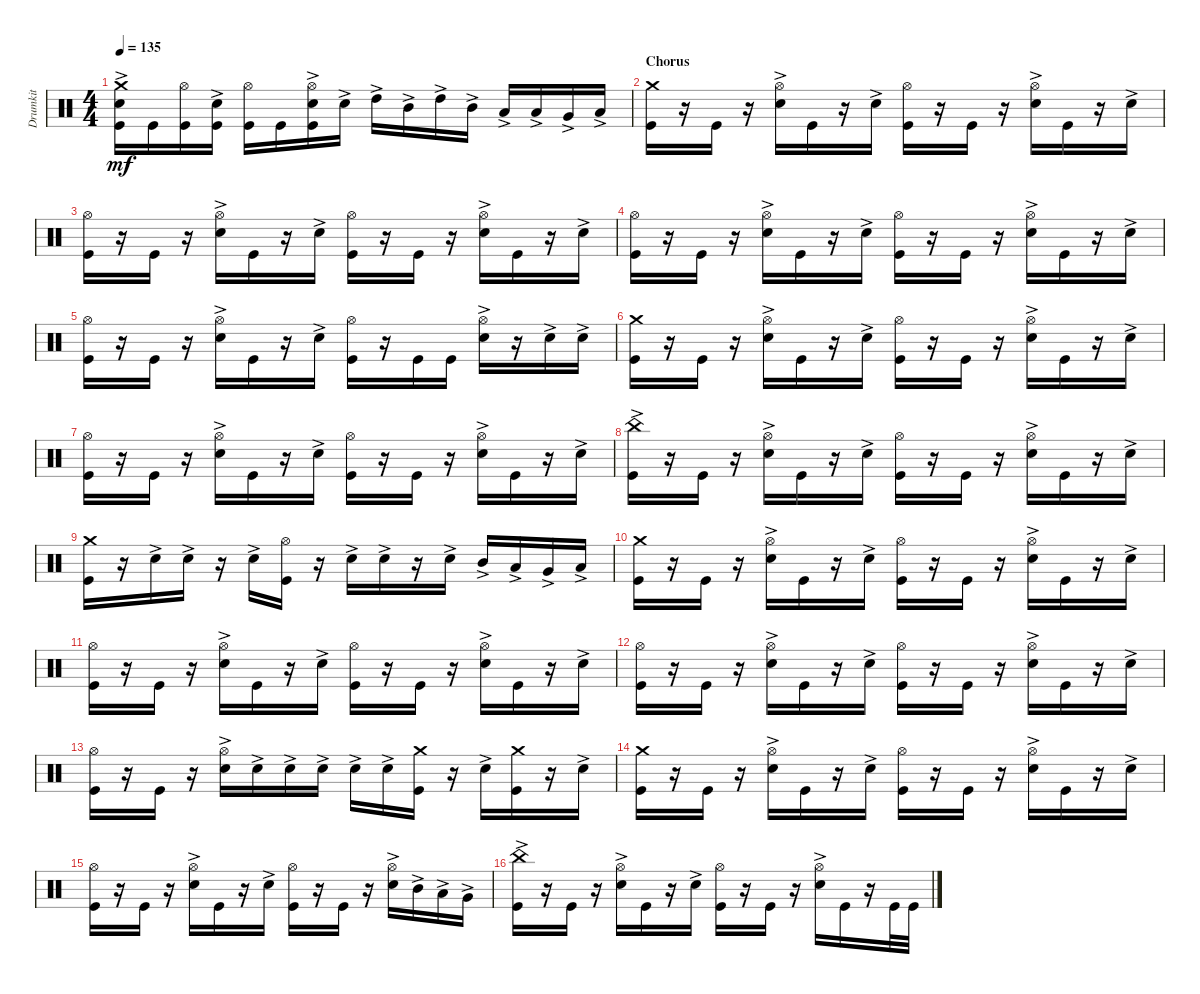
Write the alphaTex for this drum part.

\track ("Drumkit" "Drumkit") {instrument percussion}
\staff {score}
\articulation defaults
\ts (4 4)
\tempo 135
\clef neutral
\ks c
("Kick (hit)" "Snare (hit) 2"{ac} "Crash medium (hit)").16{dy mf} "Kick (hit)".16 ("Kick (hit)" "Hi-Hat (open)").16 ("Kick (hit)" "Snare (hit) 2"{ac}).16 ("Kick (hit)" "Hi-Hat (open)").16 "Kick (hit)".16 ("Kick (hit)" "Snare (hit) 2"{ac} "Hi-Hat (open)").16 "Snare (hit) 2"{ac}.16 "High Tom (hit)"{ac}.16 "Mid Tom (hit)"{ac}.16 "High Tom (hit)"{ac}.16 "Mid Tom (hit)"{ac}.16 "Low Tom (hit)"{ac}.16 "Low Tom (hit)"{ac}.16 "Very Low Tom (hit)"{ac}.16 "Low Floor Tom (hit)"{ac}.16 |
\section ("" "Chorus")
("Kick (hit)" "Crash medium (hit)").16 r.16 "Kick (hit)".16 r.16 ("Snare (hit) 2"{ac} "Hi-Hat (open)").16 "Kick (hit)".16 r.16 "Snare (hit) 2"{ac}.16 ("Kick (hit)" "Hi-Hat (open)").16 r.16 "Kick (hit)".16 r.16 ("Snare (hit) 2"{ac} "Hi-Hat (open)").16 "Kick (hit)".16 r.16 "Snare (hit) 2"{ac}.16 |
("Kick (hit)" "Hi-Hat (open)").16 r.16 "Kick (hit)".16 r.16 ("Snare (hit) 2"{ac} "Hi-Hat (open)").16 "Kick (hit)".16 r.16 "Snare (hit) 2"{ac}.16 ("Kick (hit)" "Hi-Hat (open)").16 r.16 "Kick (hit)".16 r.16 ("Snare (hit) 2"{ac} "Hi-Hat (open)").16 "Kick (hit)".16 r.16 "Snare (hit) 2"{ac}.16 |
("Kick (hit)" "Hi-Hat (open)").16 r.16 "Kick (hit)".16 r.16 ("Snare (hit) 2"{ac} "Hi-Hat (open)").16 "Kick (hit)".16 r.16 "Snare (hit) 2"{ac}.16 ("Kick (hit)" "Hi-Hat (open)").16 r.16 "Kick (hit)".16 r.16 ("Snare (hit) 2"{ac} "Hi-Hat (open)").16 "Kick (hit)".16 r.16 "Snare (hit) 2"{ac}.16 |
("Kick (hit)" "Hi-Hat (open)").16 r.16 "Kick (hit)".16 r.16 ("Snare (hit) 2"{ac} "Hi-Hat (open)").16 "Kick (hit)".16 r.16 "Snare (hit) 2"{ac}.16 ("Kick (hit)" "Hi-Hat (open)").16 r.16 "Kick (hit)".16 "Kick (hit)".16 ("Snare (hit) 2"{ac} "Hi-Hat (open)").16 r.16 "Snare (hit) 2"{ac}.16 "Snare (hit) 2"{ac}.16 |
("Kick (hit)" "Crash medium (hit)").16 r.16 "Kick (hit)".16 r.16 ("Snare (hit) 2"{ac} "Hi-Hat (open)").16 "Kick (hit)".16 r.16 "Snare (hit) 2"{ac}.16 ("Kick (hit)" "Hi-Hat (open)").16 r.16 "Kick (hit)".16 r.16 ("Snare (hit) 2"{ac} "Hi-Hat (open)").16 "Kick (hit)".16 r.16 "Snare (hit) 2"{ac}.16 |
("Kick (hit)" "Hi-Hat (open)").16 r.16 "Kick (hit)".16 r.16 ("Snare (hit) 2"{ac} "Hi-Hat (open)").16 "Kick (hit)".16 r.16 "Snare (hit) 2"{ac}.16 ("Kick (hit)" "Hi-Hat (open)").16 r.16 "Kick (hit)".16 r.16 ("Snare (hit) 2"{ac} "Hi-Hat (open)").16 "Kick (hit)".16 r.16 "Snare (hit) 2"{ac}.16 |
("Kick (hit)" "China (hit)"{ac}).16 r.16 "Kick (hit)".16 r.16 ("Snare (hit) 2"{ac} "Hi-Hat (open)").16 "Kick (hit)".16 r.16 "Snare (hit) 2"{ac}.16 ("Kick (hit)" "Hi-Hat (open)").16 r.16 "Kick (hit)".16 r.16 ("Snare (hit) 2"{ac} "Hi-Hat (open)").16 "Kick (hit)".16 r.16 "Snare (hit) 2"{ac}.16 |
("Kick (hit)" "Crash medium (hit)").16 r.16 "Snare (hit) 2"{ac}.16 "Snare (hit) 2"{ac}.16 r.16 "Snare (hit) 2"{ac}.16 ("Kick (hit)" "Hi-Hat (open)").16 r.16 "Snare (hit) 2"{ac}.16 "Snare (hit) 2"{ac}.16 r.16 "Snare (hit) 2"{ac}.16 "Mid Tom (hit)"{ac}.16 "Low Tom (hit)"{ac}.16 "Very Low Tom (hit)"{ac}.16 "Low Floor Tom (hit)"{ac}.16 |
("Kick (hit)" "Crash medium (hit)").16 r.16 "Kick (hit)".16 r.16 ("Snare (hit) 2"{ac} "Hi-Hat (open)").16 "Kick (hit)".16 r.16 "Snare (hit) 2"{ac}.16 ("Kick (hit)" "Hi-Hat (open)").16 r.16 "Kick (hit)".16 r.16 ("Snare (hit) 2"{ac} "Hi-Hat (open)").16 "Kick (hit)".16 r.16 "Snare (hit) 2"{ac}.16 |
("Kick (hit)" "Hi-Hat (open)").16 r.16 "Kick (hit)".16 r.16 ("Snare (hit) 2"{ac} "Hi-Hat (open)").16 "Kick (hit)".16 r.16 "Snare (hit) 2"{ac}.16 ("Kick (hit)" "Hi-Hat (open)").16 r.16 "Kick (hit)".16 r.16 ("Snare (hit) 2"{ac} "Hi-Hat (open)").16 "Kick (hit)".16 r.16 "Snare (hit) 2"{ac}.16 |
("Kick (hit)" "Hi-Hat (open)").16 r.16 "Kick (hit)".16 r.16 ("Snare (hit) 2"{ac} "Hi-Hat (open)").16 "Kick (hit)".16 r.16 "Snare (hit) 2"{ac}.16 ("Kick (hit)" "Hi-Hat (open)").16 r.16 "Kick (hit)".16 r.16 ("Snare (hit) 2"{ac} "Hi-Hat (open)").16 "Kick (hit)".16 r.16 "Snare (hit) 2"{ac}.16 |
("Kick (hit)" "Hi-Hat (open)").16 r.16 "Kick (hit)".16 r.16 ("Snare (hit) 2"{ac} "Hi-Hat (open)"{ac}).16 "Snare (hit) 2"{ac}.16 "Snare (hit) 2"{ac}.16 "Snare (hit) 2"{ac}.16 "Snare (hit) 2"{ac}.16 "Snare (hit) 2"{ac}.16 ("Kick (hit)" "Crash medium (hit)").16 r.16 "Snare (hit) 2"{ac}.16 ("Kick (hit)" "Crash medium (hit)").16 r.16 "Snare (hit) 2"{ac}.16 |
("Kick (hit)" "Crash medium (hit)").16 r.16 "Kick (hit)".16 r.16 ("Snare (hit) 2"{ac} "Hi-Hat (open)").16 "Kick (hit)".16 r.16 "Snare (hit) 2"{ac}.16 ("Kick (hit)" "Hi-Hat (open)").16 r.16 "Kick (hit)".16 r.16 ("Snare (hit) 2"{ac} "Hi-Hat (open)").16 "Kick (hit)".16 r.16 "Snare (hit) 2"{ac}.16 |
("Kick (hit)" "Hi-Hat (open)").16 r.16 "Kick (hit)".16 r.16 ("Snare (hit) 2"{ac} "Hi-Hat (open)").16 "Kick (hit)".16 r.16 "Snare (hit) 2"{ac}.16 ("Kick (hit)" "Hi-Hat (open)").16 r.16 "Kick (hit)".16 r.16 ("Snare (hit) 2"{ac} "Hi-Hat (open)").16 "Mid Tom (hit)"{ac}.16 "Low Tom (hit)"{ac}.16 "Very Low Tom (hit)"{ac}.16 |
("Kick (hit)" "China (hit)"{ac}).16 r.16 "Kick (hit)".16 r.16 ("Snare (hit) 2"{ac} "Hi-Hat (open)").16 "Kick (hit)".16 r.16 "Snare (hit) 2"{ac}.16 ("Kick (hit)" "Hi-Hat (open)").16 r.16 "Kick (hit)".16 r.16 ("Snare (hit) 2"{ac} "Hi-Hat (open)").16 "Kick (hit)".16 r.16 "Kick (hit)".32 "Kick (hit)".32
